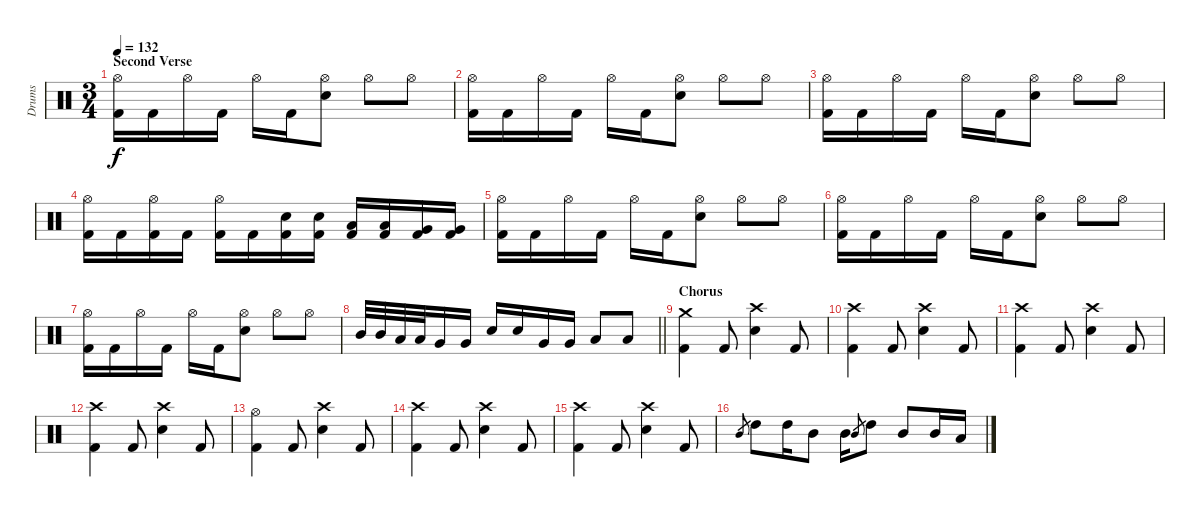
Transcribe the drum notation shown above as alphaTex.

\track ("Drums" "Drums") {instrument percussion}
\staff {score}
\articulation defaults
\ts (3 4)
\section ("" "Second Verse")
\tempo 132
\clef neutral
\ks c
("Hi-Hat (open)" "Kick (hit) 2").16{dy f} "Kick (hit) 2".16 "Hi-Hat (open)".16 "Kick (hit) 2".16 "Hi-Hat (open)".16 "Kick (hit) 2".16 ("Hi-Hat (open)" "Snare (hit) 2").8 "Hi-Hat (open)".8 "Hi-Hat (open)".8 |
("Hi-Hat (open)" "Kick (hit) 2").16 "Kick (hit) 2".16 "Hi-Hat (open)".16 "Kick (hit) 2".16 "Hi-Hat (open)".16 "Kick (hit) 2".16 ("Hi-Hat (open)" "Snare (hit) 2").8 "Hi-Hat (open)".8 "Hi-Hat (open)".8 |
("Hi-Hat (open)" "Kick (hit) 2").16 "Kick (hit) 2".16 "Hi-Hat (open)".16 "Kick (hit) 2".16 "Hi-Hat (open)".16 "Kick (hit) 2".16 ("Hi-Hat (open)" "Snare (hit) 2").8 "Hi-Hat (open)".8 "Hi-Hat (open)".8 |
("Hi-Hat (open)" "Kick (hit) 2").16 "Kick (hit) 2".16 ("Hi-Hat (open)" "Kick (hit) 2").16 "Kick (hit) 2".16 ("Hi-Hat (open)" "Kick (hit) 2").16 "Kick (hit) 2".16 ("Snare (hit) 2" "Kick (hit) 2").16 ("Snare (hit) 2" "Kick (hit) 2").16 ("Low Tom (hit)" "Kick (hit) 2").16 ("Low Tom (hit)" "Kick (hit) 2").16 ("Very Low Tom (hit)" "Kick (hit) 2").16 ("Very Low Tom (hit)" "Kick (hit) 2").16 |
("Hi-Hat (open)" "Kick (hit) 2").16 "Kick (hit) 2".16 "Hi-Hat (open)".16 "Kick (hit) 2".16 "Hi-Hat (open)".16 "Kick (hit) 2".16 ("Hi-Hat (open)" "Snare (hit) 2").8 "Hi-Hat (open)".8 "Hi-Hat (open)".8 |
("Hi-Hat (open)" "Kick (hit) 2").16 "Kick (hit) 2".16 "Hi-Hat (open)".16 "Kick (hit) 2".16 "Hi-Hat (open)".16 "Kick (hit) 2".16 ("Hi-Hat (open)" "Snare (hit) 2").8 "Hi-Hat (open)".8 "Hi-Hat (open)".8 |
("Hi-Hat (open)" "Kick (hit) 2").16 "Kick (hit) 2".16 "Hi-Hat (open)".16 "Kick (hit) 2".16 "Hi-Hat (open)".16 "Kick (hit) 2".16 ("Hi-Hat (open)" "Snare (hit) 2").8 "Hi-Hat (open)".8 "Hi-Hat (open)".8 |
\barLineRight lightlight "Mid Tom (hit)".32 "Mid Tom (hit)".32 "Low Tom (hit)".32 "Low Tom (hit)".32 "Very Low Tom (hit)".16 "Very Low Tom (hit)".16 "Snare (hit) 2".16 "Snare (hit) 2".16 "Very Low Tom (hit)".16 "Very Low Tom (hit)".16 "Low Floor Tom (hit)".8 "Low Floor Tom (hit)".8
|
\section ("" "Chorus")
("Crash medium (hit)" "Kick (hit) 2").4 "Kick (hit) 2".8 ("Crash high (hit)" "Snare (hit) 2").4 "Kick (hit) 2".8 |
("Crash high (hit)" "Kick (hit) 2").4 "Kick (hit) 2".8 ("Crash high (hit)" "Snare (hit) 2").4 "Kick (hit) 2".8 |
("Crash high (hit)" "Kick (hit) 2").4 "Kick (hit) 2".8 ("Crash high (hit)" "Snare (hit) 2").4 "Kick (hit) 2".8 |
("Crash high (hit)" "Kick (hit) 2").4 "Kick (hit) 2".8 ("Crash high (hit)" "Snare (hit) 2").4 "Kick (hit) 2".8 |
("Hi-Hat (open)" "Kick (hit) 2").4 "Kick (hit) 2".8 ("Crash high (hit)" "Snare (hit) 2").4 "Kick (hit) 2".8 |
("Crash high (hit)" "Kick (hit) 2").4 "Kick (hit) 2".8 ("Crash high (hit)" "Snare (hit) 2").4 "Kick (hit) 2".8 |
("Crash high (hit)" "Kick (hit) 2").4 "Kick (hit) 2".8 ("Crash high (hit)" "Snare (hit) 2").4 "Kick (hit) 2".8 |
"Mid Tom (hit)".8{gr} "High Tom (hit)".8 "High Tom (hit)".16 "Mid Tom (hit)".8 "Mid Tom (hit)".16 "Mid Tom (hit)".8{gr} "High Tom (hit)".8 "Mid Tom (hit)".8 "Mid Tom (hit)".16 "Low Tom (hit)".16
